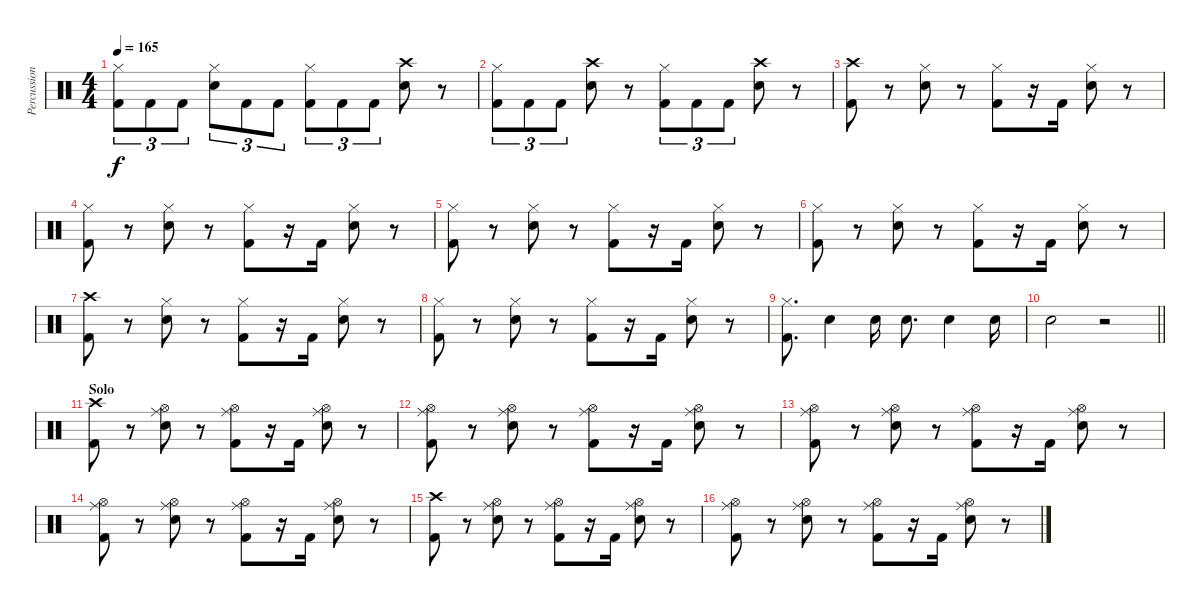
\track ("Percussion" "Percussion") {instrument percussion}
\staff {score}
\articulation defaults
\ts (4 4)
\tempo 165
\clef neutral
\ks c
("Hi-Hat (closed)" "Kick (hit) 2").8{tu (3 2) dy f} "Kick (hit) 2".8{tu (3 2)} "Kick (hit) 2".8{tu (3 2)} ("Hi-Hat (closed)" "Snare (hit) 2").8{tu (3 2)} "Kick (hit) 2".8{tu (3 2)} "Kick (hit) 2".8{tu (3 2)} ("Hi-Hat (closed)" "Kick (hit) 2").8{tu (3 2)} "Kick (hit) 2".8{tu (3 2)} "Kick (hit) 2".8{tu (3 2)} ("Crash high (hit)" "Snare (hit) 2").8 r.8 |
("Hi-Hat (closed)" "Kick (hit) 2").8{tu (3 2)} "Kick (hit) 2".8{tu (3 2)} "Kick (hit) 2".8{tu (3 2)} ("Crash high (hit)" "Snare (hit) 2").8 r.8 ("Hi-Hat (closed)" "Kick (hit) 2").8{tu (3 2)} "Kick (hit) 2".8{tu (3 2)} "Kick (hit) 2".8{tu (3 2)} ("Crash high (hit)" "Snare (hit) 2").8 r.8 |
("Crash high (hit)" "Kick (hit) 2").8 r.8 ("Hi-Hat (closed)" "Snare (hit) 2").8 r.8 ("Hi-Hat (closed)" "Kick (hit) 2").8 r.16 "Kick (hit) 2".16 ("Hi-Hat (closed)" "Snare (hit) 2").8 r.8 |
("Hi-Hat (closed)" "Kick (hit) 2").8 r.8 ("Hi-Hat (closed)" "Snare (hit) 2").8 r.8 ("Hi-Hat (closed)" "Kick (hit) 2").8 r.16 "Kick (hit) 2".16 ("Hi-Hat (closed)" "Snare (hit) 2").8 r.8 |
("Hi-Hat (closed)" "Kick (hit) 2").8 r.8 ("Hi-Hat (closed)" "Snare (hit) 2").8 r.8 ("Hi-Hat (closed)" "Kick (hit) 2").8 r.16 "Kick (hit) 2".16 ("Hi-Hat (closed)" "Snare (hit) 2").8 r.8 |
("Hi-Hat (closed)" "Kick (hit) 2").8 r.8 ("Hi-Hat (closed)" "Snare (hit) 2").8 r.8 ("Hi-Hat (closed)" "Kick (hit) 2").8 r.16 "Kick (hit) 2".16 ("Hi-Hat (closed)" "Snare (hit) 2").8 r.8 |
("Crash high (hit)" "Kick (hit) 2").8 r.8 ("Hi-Hat (closed)" "Snare (hit) 2").8 r.8 ("Hi-Hat (closed)" "Kick (hit) 2").8 r.16 "Kick (hit) 2".16 ("Hi-Hat (closed)" "Snare (hit) 2").8 r.8 |
("Hi-Hat (closed)" "Kick (hit) 2").8 r.8 ("Hi-Hat (closed)" "Snare (hit) 2").8 r.8 ("Hi-Hat (closed)" "Kick (hit) 2").8 r.16 "Kick (hit) 2".16 ("Hi-Hat (closed)" "Snare (hit) 2").8 r.8 |
("Hi-Hat (closed)" "Kick (hit) 2").8{d} "Snare (hit) 2".4 "Snare (hit) 2".16 "Snare (hit) 2".8{d} "Snare (hit) 2".4 "Snare (hit) 2".16 |
\barLineRight lightlight "Snare (hit) 2".2
r.2 |
\section ("" "Solo")
("Crash high (hit)" "Kick (hit) 2").8 r.8 ("Hi-Hat (open)" "Ride (middle)" "Snare (hit) 2").8 r.8 ("Hi-Hat (open)" "Ride (middle)" "Kick (hit) 2").8 r.16 "Kick (hit) 2".16 ("Hi-Hat (open)" "Ride (middle)" "Snare (hit) 2").8 r.8 |
("Hi-Hat (open)" "Ride (middle)" "Kick (hit) 2").8 r.8 ("Hi-Hat (open)" "Ride (middle)" "Snare (hit) 2").8 r.8 ("Hi-Hat (open)" "Ride (middle)" "Kick (hit) 2").8 r.16 "Kick (hit) 2".16 ("Hi-Hat (open)" "Ride (middle)" "Snare (hit) 2").8 r.8 |
("Hi-Hat (open)" "Ride (middle)" "Kick (hit) 2").8 r.8 ("Hi-Hat (open)" "Ride (middle)" "Snare (hit) 2").8 r.8 ("Hi-Hat (open)" "Ride (middle)" "Kick (hit) 2").8 r.16 "Kick (hit) 2".16 ("Hi-Hat (open)" "Ride (middle)" "Snare (hit) 2").8 r.8 |
("Hi-Hat (open)" "Ride (middle)" "Kick (hit) 2").8 r.8 ("Hi-Hat (open)" "Ride (middle)" "Snare (hit) 2").8 r.8 ("Hi-Hat (open)" "Ride (middle)" "Kick (hit) 2").8 r.16 "Kick (hit) 2".16 ("Hi-Hat (open)" "Ride (middle)" "Snare (hit) 2").8 r.8 |
("Crash high (hit)" "Kick (hit) 2").8 r.8 ("Hi-Hat (open)" "Ride (middle)" "Snare (hit) 2").8 r.8 ("Hi-Hat (open)" "Ride (middle)" "Kick (hit) 2").8 r.16 "Kick (hit) 2".16 ("Hi-Hat (open)" "Ride (middle)" "Snare (hit) 2").8 r.8 |
("Hi-Hat (open)" "Ride (middle)" "Kick (hit) 2").8 r.8 ("Hi-Hat (open)" "Ride (middle)" "Snare (hit) 2").8 r.8 ("Hi-Hat (open)" "Ride (middle)" "Kick (hit) 2").8 r.16 "Kick (hit) 2".16 ("Hi-Hat (open)" "Ride (middle)" "Snare (hit) 2").8 r.8
